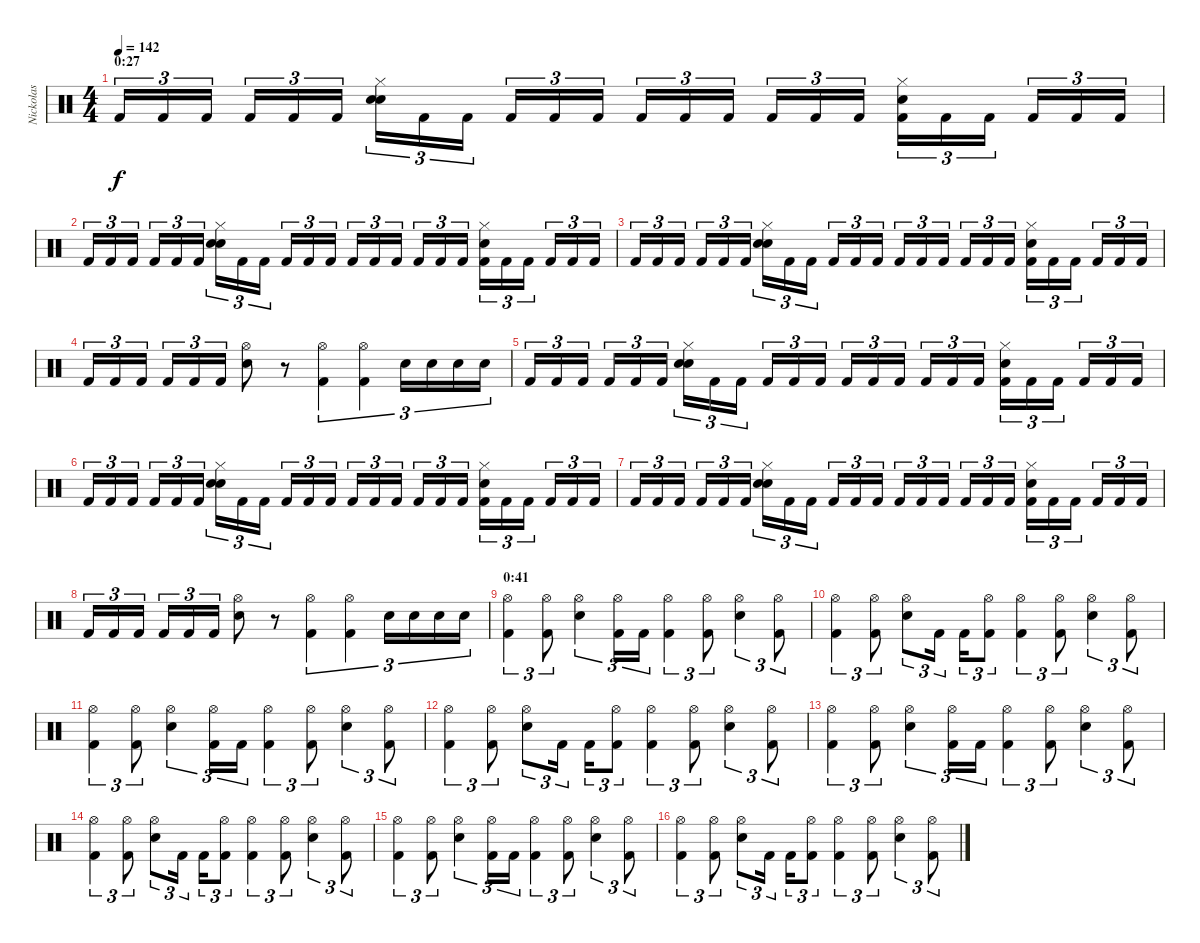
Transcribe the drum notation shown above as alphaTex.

\track ("Nickolas " "Nickolas ") {instrument percussion}
\staff {score}
\articulation defaults
\ts (4 4)
\section ("" "0:27")
\tempo 142
\clef neutral
\ks c "Kick (hit) 2".16{tu (3 2) dy f} "Kick (hit) 2".16{tu (3 2)} "Kick (hit) 2".16{tu (3 2)} "Kick (hit) 2".16{tu (3 2)} "Kick (hit) 2".16{tu (3 2)} "Kick (hit) 2".16{tu (3 2)}
("Snare (hit) 2" "Snare (hit) 2" "Hi-Hat (closed)").16{tu (3 2)} "Kick (hit) 2".16{tu (3 2)} "Kick (hit) 2".16{tu (3 2)} "Kick (hit) 2".16{tu (3 2)} "Kick (hit) 2".16{tu (3 2)} "Kick (hit) 2".16{tu (3 2)} "Kick (hit) 2".16{tu (3 2)} "Kick (hit) 2".16{tu (3 2)} "Kick (hit) 2".16{tu (3 2)} "Kick (hit) 2".16{tu (3 2)} "Kick (hit) 2".16{tu (3 2)} "Kick (hit) 2".16{tu (3 2)} ("Kick (hit) 2" "Snare (hit) 2" "Hi-Hat (closed)").16{tu (3 2)} "Kick (hit) 2".16{tu (3 2)} "Kick (hit) 2".16{tu (3 2)} "Kick (hit) 2".16{tu (3 2)} "Kick (hit) 2".16{tu (3 2)} "Kick (hit) 2".16{tu (3 2)} |
"Kick (hit) 2".16{tu (3 2)} "Kick (hit) 2".16{tu (3 2)} "Kick (hit) 2".16{tu (3 2)} "Kick (hit) 2".16{tu (3 2)} "Kick (hit) 2".16{tu (3 2)} "Kick (hit) 2".16{tu (3 2)} ("Snare (hit) 2" "Snare (hit) 2" "Hi-Hat (closed)").16{tu (3 2)} "Kick (hit) 2".16{tu (3 2)} "Kick (hit) 2".16{tu (3 2)} "Kick (hit) 2".16{tu (3 2)} "Kick (hit) 2".16{tu (3 2)} "Kick (hit) 2".16{tu (3 2)} "Kick (hit) 2".16{tu (3 2)} "Kick (hit) 2".16{tu (3 2)} "Kick (hit) 2".16{tu (3 2)} "Kick (hit) 2".16{tu (3 2)} "Kick (hit) 2".16{tu (3 2)} "Kick (hit) 2".16{tu (3 2)} ("Kick (hit) 2" "Snare (hit) 2" "Hi-Hat (closed)").16{tu (3 2)} "Kick (hit) 2".16{tu (3 2)} "Kick (hit) 2".16{tu (3 2)} "Kick (hit) 2".16{tu (3 2)} "Kick (hit) 2".16{tu (3 2)} "Kick (hit) 2".16{tu (3 2)} |
"Kick (hit) 2".16{tu (3 2)} "Kick (hit) 2".16{tu (3 2)} "Kick (hit) 2".16{tu (3 2)} "Kick (hit) 2".16{tu (3 2)} "Kick (hit) 2".16{tu (3 2)} "Kick (hit) 2".16{tu (3 2)} ("Snare (hit) 2" "Snare (hit) 2" "Hi-Hat (closed)").16{tu (3 2)} "Kick (hit) 2".16{tu (3 2)} "Kick (hit) 2".16{tu (3 2)} "Kick (hit) 2".16{tu (3 2)} "Kick (hit) 2".16{tu (3 2)} "Kick (hit) 2".16{tu (3 2)} "Kick (hit) 2".16{tu (3 2)} "Kick (hit) 2".16{tu (3 2)} "Kick (hit) 2".16{tu (3 2)} "Kick (hit) 2".16{tu (3 2)} "Kick (hit) 2".16{tu (3 2)} "Kick (hit) 2".16{tu (3 2)} ("Kick (hit) 2" "Snare (hit) 2" "Hi-Hat (closed)").16{tu (3 2)} "Kick (hit) 2".16{tu (3 2)} "Kick (hit) 2".16{tu (3 2)} "Kick (hit) 2".16{tu (3 2)} "Kick (hit) 2".16{tu (3 2)} "Kick (hit) 2".16{tu (3 2)} |
"Kick (hit) 2".16{tu (3 2)} "Kick (hit) 2".16{tu (3 2)} "Kick (hit) 2".16{tu (3 2)} "Kick (hit) 2".16{tu (3 2)} "Kick (hit) 2".16{tu (3 2)} "Kick (hit) 2".16{tu (3 2)} ("Hi-Hat (open)" "Snare (hit) 2").8 r.8 ("Kick (hit) 2" "Hi-Hat (open)").4{tu (3 2)} ("Kick (hit) 2" "Hi-Hat (open)").4{tu (3 2)} "Snare (hit) 2".16{tu (3 2)} "Snare (hit) 2".16{tu (3 2)} "Snare (hit) 2".16{tu (3 2)} "Snare (hit) 2".16{tu (3 2)} |
"Kick (hit) 2".16{tu (3 2)} "Kick (hit) 2".16{tu (3 2)} "Kick (hit) 2".16{tu (3 2)} "Kick (hit) 2".16{tu (3 2)} "Kick (hit) 2".16{tu (3 2)} "Kick (hit) 2".16{tu (3 2)} ("Snare (hit) 2" "Snare (hit) 2" "Hi-Hat (closed)").16{tu (3 2)} "Kick (hit) 2".16{tu (3 2)} "Kick (hit) 2".16{tu (3 2)} "Kick (hit) 2".16{tu (3 2)} "Kick (hit) 2".16{tu (3 2)} "Kick (hit) 2".16{tu (3 2)} "Kick (hit) 2".16{tu (3 2)} "Kick (hit) 2".16{tu (3 2)} "Kick (hit) 2".16{tu (3 2)} "Kick (hit) 2".16{tu (3 2)} "Kick (hit) 2".16{tu (3 2)} "Kick (hit) 2".16{tu (3 2)} ("Kick (hit) 2" "Snare (hit) 2" "Hi-Hat (closed)").16{tu (3 2)} "Kick (hit) 2".16{tu (3 2)} "Kick (hit) 2".16{tu (3 2)} "Kick (hit) 2".16{tu (3 2)} "Kick (hit) 2".16{tu (3 2)} "Kick (hit) 2".16{tu (3 2)} |
"Kick (hit) 2".16{tu (3 2)} "Kick (hit) 2".16{tu (3 2)} "Kick (hit) 2".16{tu (3 2)} "Kick (hit) 2".16{tu (3 2)} "Kick (hit) 2".16{tu (3 2)} "Kick (hit) 2".16{tu (3 2)} ("Snare (hit) 2" "Snare (hit) 2" "Hi-Hat (closed)").16{tu (3 2)} "Kick (hit) 2".16{tu (3 2)} "Kick (hit) 2".16{tu (3 2)} "Kick (hit) 2".16{tu (3 2)} "Kick (hit) 2".16{tu (3 2)} "Kick (hit) 2".16{tu (3 2)} "Kick (hit) 2".16{tu (3 2)} "Kick (hit) 2".16{tu (3 2)} "Kick (hit) 2".16{tu (3 2)} "Kick (hit) 2".16{tu (3 2)} "Kick (hit) 2".16{tu (3 2)} "Kick (hit) 2".16{tu (3 2)} ("Kick (hit) 2" "Snare (hit) 2" "Hi-Hat (closed)").16{tu (3 2)} "Kick (hit) 2".16{tu (3 2)} "Kick (hit) 2".16{tu (3 2)} "Kick (hit) 2".16{tu (3 2)} "Kick (hit) 2".16{tu (3 2)} "Kick (hit) 2".16{tu (3 2)} |
"Kick (hit) 2".16{tu (3 2)} "Kick (hit) 2".16{tu (3 2)} "Kick (hit) 2".16{tu (3 2)} "Kick (hit) 2".16{tu (3 2)} "Kick (hit) 2".16{tu (3 2)} "Kick (hit) 2".16{tu (3 2)} ("Snare (hit) 2" "Snare (hit) 2" "Hi-Hat (closed)").16{tu (3 2)} "Kick (hit) 2".16{tu (3 2)} "Kick (hit) 2".16{tu (3 2)} "Kick (hit) 2".16{tu (3 2)} "Kick (hit) 2".16{tu (3 2)} "Kick (hit) 2".16{tu (3 2)} "Kick (hit) 2".16{tu (3 2)} "Kick (hit) 2".16{tu (3 2)} "Kick (hit) 2".16{tu (3 2)} "Kick (hit) 2".16{tu (3 2)} "Kick (hit) 2".16{tu (3 2)} "Kick (hit) 2".16{tu (3 2)} ("Kick (hit) 2" "Snare (hit) 2" "Hi-Hat (closed)").16{tu (3 2)} "Kick (hit) 2".16{tu (3 2)} "Kick (hit) 2".16{tu (3 2)} "Kick (hit) 2".16{tu (3 2)} "Kick (hit) 2".16{tu (3 2)} "Kick (hit) 2".16{tu (3 2)} |
"Kick (hit) 2".16{tu (3 2)} "Kick (hit) 2".16{tu (3 2)} "Kick (hit) 2".16{tu (3 2)} "Kick (hit) 2".16{tu (3 2)} "Kick (hit) 2".16{tu (3 2)} "Kick (hit) 2".16{tu (3 2)} ("Hi-Hat (open)" "Snare (hit) 2").8 r.8 ("Kick (hit) 2" "Hi-Hat (open)").4{tu (3 2)} ("Kick (hit) 2" "Hi-Hat (open)").4{tu (3 2)} "Snare (hit) 2".16{tu (3 2)} "Snare (hit) 2".16{tu (3 2)} "Snare (hit) 2".16{tu (3 2)} "Snare (hit) 2".16{tu (3 2)} |
\section ("" "0:41")
("Kick (hit) 2" "Hi-Hat (open)").4{tu (3 2)} ("Kick (hit) 2" "Hi-Hat (open)").8{tu (3 2)} ("Snare (hit) 2" "Hi-Hat (open)").4{tu (3 2)} ("Kick (hit) 2" "Hi-Hat (open)").16{tu (3 2)} "Kick (hit) 2".16{tu (3 2)} ("Kick (hit) 2" "Hi-Hat (open)").4{tu (3 2)} ("Kick (hit) 2" "Hi-Hat (open)").8{tu (3 2)} ("Snare (hit) 2" "Hi-Hat (open)").4{tu (3 2)} ("Kick (hit) 2" "Hi-Hat (open)").8{tu (3 2)} |
("Kick (hit) 2" "Hi-Hat (open)").4{tu (3 2)} ("Kick (hit) 2" "Hi-Hat (open)").8{tu (3 2)} ("Snare (hit) 2" "Hi-Hat (open)").8{tu (3 2)} "Kick (hit) 2".16{tu (3 2)} "Kick (hit) 2".16{tu (3 2)} ("Kick (hit) 2" "Hi-Hat (open)").8{tu (3 2)} ("Kick (hit) 2" "Hi-Hat (open)").4{tu (3 2)} ("Kick (hit) 2" "Hi-Hat (open)").8{tu (3 2)} ("Snare (hit) 2" "Hi-Hat (open)").4{tu (3 2)} ("Kick (hit) 2" "Hi-Hat (open)").8{tu (3 2)} |
("Kick (hit) 2" "Hi-Hat (open)").4{tu (3 2)} ("Kick (hit) 2" "Hi-Hat (open)").8{tu (3 2)} ("Snare (hit) 2" "Hi-Hat (open)").4{tu (3 2)} ("Kick (hit) 2" "Hi-Hat (open)").16{tu (3 2)} "Kick (hit) 2".16{tu (3 2)} ("Kick (hit) 2" "Hi-Hat (open)").4{tu (3 2)} ("Kick (hit) 2" "Hi-Hat (open)").8{tu (3 2)} ("Snare (hit) 2" "Hi-Hat (open)").4{tu (3 2)} ("Kick (hit) 2" "Hi-Hat (open)").8{tu (3 2)} |
("Kick (hit) 2" "Hi-Hat (open)").4{tu (3 2)} ("Kick (hit) 2" "Hi-Hat (open)").8{tu (3 2)} ("Snare (hit) 2" "Hi-Hat (open)").8{tu (3 2)} "Kick (hit) 2".16{tu (3 2)} "Kick (hit) 2".16{tu (3 2)} ("Kick (hit) 2" "Hi-Hat (open)").8{tu (3 2)} ("Kick (hit) 2" "Hi-Hat (open)").4{tu (3 2)} ("Kick (hit) 2" "Hi-Hat (open)").8{tu (3 2)} ("Snare (hit) 2" "Hi-Hat (open)").4{tu (3 2)} ("Kick (hit) 2" "Hi-Hat (open)").8{tu (3 2)} |
("Kick (hit) 2" "Hi-Hat (open)").4{tu (3 2)} ("Kick (hit) 2" "Hi-Hat (open)").8{tu (3 2)} ("Snare (hit) 2" "Hi-Hat (open)").4{tu (3 2)} ("Kick (hit) 2" "Hi-Hat (open)").16{tu (3 2)} "Kick (hit) 2".16{tu (3 2)} ("Kick (hit) 2" "Hi-Hat (open)").4{tu (3 2)} ("Kick (hit) 2" "Hi-Hat (open)").8{tu (3 2)} ("Snare (hit) 2" "Hi-Hat (open)").4{tu (3 2)} ("Kick (hit) 2" "Hi-Hat (open)").8{tu (3 2)} |
("Kick (hit) 2" "Hi-Hat (open)").4{tu (3 2)} ("Kick (hit) 2" "Hi-Hat (open)").8{tu (3 2)} ("Snare (hit) 2" "Hi-Hat (open)").8{tu (3 2)} "Kick (hit) 2".16{tu (3 2)} "Kick (hit) 2".16{tu (3 2)} ("Kick (hit) 2" "Hi-Hat (open)").8{tu (3 2)} ("Kick (hit) 2" "Hi-Hat (open)").4{tu (3 2)} ("Kick (hit) 2" "Hi-Hat (open)").8{tu (3 2)} ("Snare (hit) 2" "Hi-Hat (open)").4{tu (3 2)} ("Kick (hit) 2" "Hi-Hat (open)").8{tu (3 2)} |
("Kick (hit) 2" "Hi-Hat (open)").4{tu (3 2)} ("Kick (hit) 2" "Hi-Hat (open)").8{tu (3 2)} ("Snare (hit) 2" "Hi-Hat (open)").4{tu (3 2)} ("Kick (hit) 2" "Hi-Hat (open)").16{tu (3 2)} "Kick (hit) 2".16{tu (3 2)} ("Kick (hit) 2" "Hi-Hat (open)").4{tu (3 2)} ("Kick (hit) 2" "Hi-Hat (open)").8{tu (3 2)} ("Snare (hit) 2" "Hi-Hat (open)").4{tu (3 2)} ("Kick (hit) 2" "Hi-Hat (open)").8{tu (3 2)} |
("Kick (hit) 2" "Hi-Hat (open)").4{tu (3 2)} ("Kick (hit) 2" "Hi-Hat (open)").8{tu (3 2)} ("Snare (hit) 2" "Hi-Hat (open)").8{tu (3 2)} "Kick (hit) 2".16{tu (3 2)} "Kick (hit) 2".16{tu (3 2)} ("Kick (hit) 2" "Hi-Hat (open)").8{tu (3 2)} ("Kick (hit) 2" "Hi-Hat (open)").4{tu (3 2)} ("Kick (hit) 2" "Hi-Hat (open)").8{tu (3 2)} ("Snare (hit) 2" "Hi-Hat (open)").4{tu (3 2)} ("Kick (hit) 2" "Hi-Hat (open)").8{tu (3 2)}
